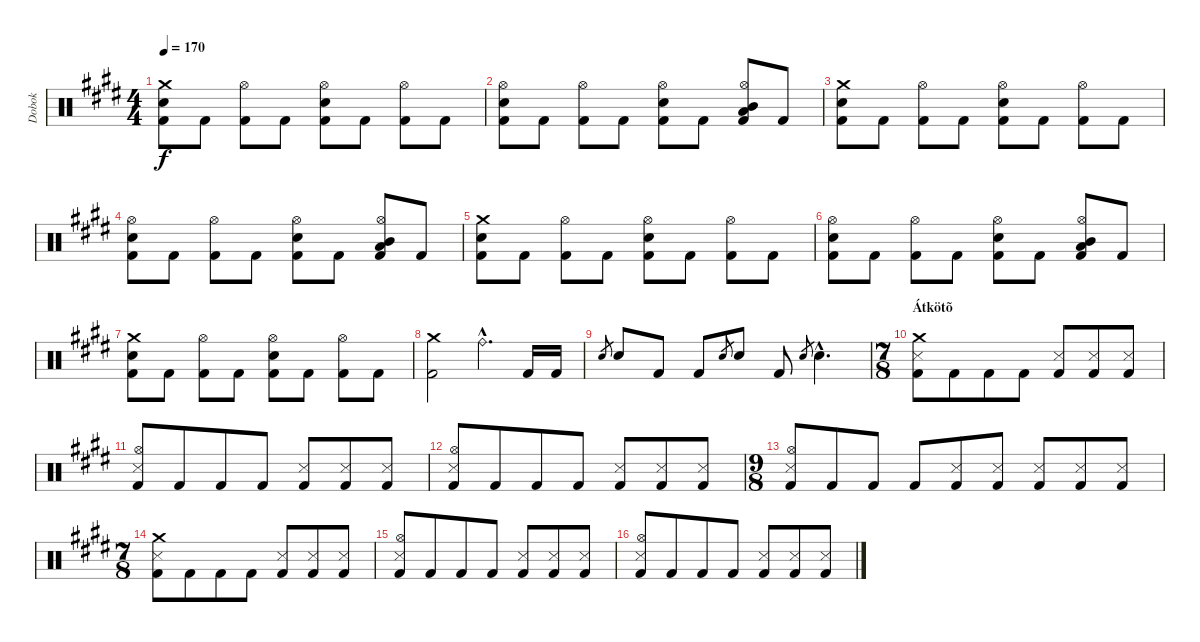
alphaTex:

\track ("Dobok" "Dobok") {instrument percussion}
\staff {score}
\articulation defaults
\ts (4 4)
\tempo 170
\clef neutral
\ks c#minor
("Crash medium (hit)" "Snare (hit) 2" "Kick (hit) 2").8{dy f} "Kick (hit) 2".8 ("Hi-Hat (open)" "Kick (hit) 2").8 "Kick (hit) 2".8 ("Hi-Hat (open)" "Snare (hit) 2" "Kick (hit) 2").8 "Kick (hit) 2".8 ("Hi-Hat (open)" "Kick (hit) 2").8 "Kick (hit) 2".8 |
("Hi-Hat (open)" "Snare (hit) 2" "Kick (hit) 2").8 "Kick (hit) 2".8 ("Hi-Hat (open)" "Kick (hit) 2").8 "Kick (hit) 2".8 ("Hi-Hat (open)" "Snare (hit) 2" "Kick (hit) 2").8 "Kick (hit) 2".8 ("Hi-Hat (open)" "Low Tom (hit)" "Mid Tom (hit)" "Kick (hit) 2").8 "Kick (hit) 2".8 |
("Crash medium (hit)" "Snare (hit) 2" "Kick (hit) 2").8 "Kick (hit) 2".8 ("Hi-Hat (open)" "Kick (hit) 2").8 "Kick (hit) 2".8 ("Hi-Hat (open)" "Snare (hit) 2" "Kick (hit) 2").8 "Kick (hit) 2".8 ("Hi-Hat (open)" "Kick (hit) 2").8 "Kick (hit) 2".8 |
("Hi-Hat (open)" "Snare (hit) 2" "Kick (hit) 2").8 "Kick (hit) 2".8 ("Hi-Hat (open)" "Kick (hit) 2").8 "Kick (hit) 2".8 ("Hi-Hat (open)" "Snare (hit) 2" "Kick (hit) 2").8 "Kick (hit) 2".8 ("Hi-Hat (open)" "Low Tom (hit)" "Mid Tom (hit)" "Kick (hit) 2").8 "Kick (hit) 2".8 |
("Crash medium (hit)" "Snare (hit) 2" "Kick (hit) 2").8 "Kick (hit) 2".8 ("Hi-Hat (open)" "Kick (hit) 2").8 "Kick (hit) 2".8 ("Hi-Hat (open)" "Snare (hit) 2" "Kick (hit) 2").8 "Kick (hit) 2".8 ("Hi-Hat (open)" "Kick (hit) 2").8 "Kick (hit) 2".8 |
("Hi-Hat (open)" "Snare (hit) 2" "Kick (hit) 2").8 "Kick (hit) 2".8 ("Hi-Hat (open)" "Kick (hit) 2").8 "Kick (hit) 2".8 ("Hi-Hat (open)" "Snare (hit) 2" "Kick (hit) 2").8 "Kick (hit) 2".8 ("Hi-Hat (open)" "Low Tom (hit)" "Mid Tom (hit)" "Kick (hit) 2").8 "Kick (hit) 2".8 |
("Crash medium (hit)" "Snare (hit) 2" "Kick (hit) 2").8 "Kick (hit) 2".8 ("Hi-Hat (open)" "Kick (hit) 2").8 "Kick (hit) 2".8 ("Hi-Hat (open)" "Snare (hit) 2" "Kick (hit) 2").8 "Kick (hit) 2".8 ("Hi-Hat (open)" "Kick (hit) 2").8 "Kick (hit) 2".8 |
("Crash medium (hit)" "Kick (hit) 2").2 "Ride (bell)"{hac}.4{d} "Kick (hit) 2".16 "Kick (hit) 2".16 |
"Snare (hit) 2".8{gr} "Snare (hit) 2".8 "Kick (hit) 2".8 "Kick (hit) 2".8 "Snare (hit) 2".8{gr} "Snare (hit) 2".8 "Kick (hit) 2".8 "Snare (hit) 2".8{gr} "Snare (hit) 2"{hac}.4{d} |
\ts (7 8)
\section ("" "Átkötõ")
("Crash medium (hit)" "Snare (side stick) 3" "Kick (hit) 2").8 "Kick (hit) 2".8 "Kick (hit) 2".8 "Kick (hit) 2".8 ("Snare (side stick) 3" "Kick (hit) 2").8 ("Snare (side stick) 3" "Kick (hit) 2").8 ("Snare (side stick) 3" "Kick (hit) 2").8 |
("Hi-Hat (open)" "Snare (side stick) 3" "Kick (hit) 2").8 "Kick (hit) 2".8 "Kick (hit) 2".8 "Kick (hit) 2".8 ("Snare (side stick) 3" "Kick (hit) 2").8 ("Snare (side stick) 3" "Kick (hit) 2").8 ("Snare (side stick) 3" "Kick (hit) 2").8 |
("Hi-Hat (open)" "Snare (side stick) 3" "Kick (hit) 2").8 "Kick (hit) 2".8 "Kick (hit) 2".8 "Kick (hit) 2".8 ("Snare (side stick) 3" "Kick (hit) 2").8 ("Snare (side stick) 3" "Kick (hit) 2").8 ("Snare (side stick) 3" "Kick (hit) 2").8 |
\ts (9 8)
("Hi-Hat (open)" "Snare (side stick) 3" "Kick (hit) 2").8 "Kick (hit) 2".8 "Kick (hit) 2".8 "Kick (hit) 2".8 ("Snare (side stick) 3" "Kick (hit) 2").8 ("Snare (side stick) 3" "Kick (hit) 2").8 ("Snare (side stick) 3" "Kick (hit) 2").8 ("Snare (side stick) 3" "Kick (hit) 2").8 ("Snare (side stick) 3" "Kick (hit) 2").8 |
\ts (7 8)
("Crash medium (hit)" "Snare (side stick) 3" "Kick (hit) 2").8 "Kick (hit) 2".8 "Kick (hit) 2".8 "Kick (hit) 2".8 ("Snare (side stick) 3" "Kick (hit) 2").8 ("Snare (side stick) 3" "Kick (hit) 2").8 ("Snare (side stick) 3" "Kick (hit) 2").8 |
("Hi-Hat (open)" "Snare (side stick) 3" "Kick (hit) 2").8 "Kick (hit) 2".8 "Kick (hit) 2".8 "Kick (hit) 2".8 ("Snare (side stick) 3" "Kick (hit) 2").8 ("Snare (side stick) 3" "Kick (hit) 2").8 ("Snare (side stick) 3" "Kick (hit) 2").8 |
("Hi-Hat (open)" "Snare (side stick) 3" "Kick (hit) 2").8 "Kick (hit) 2".8 "Kick (hit) 2".8 "Kick (hit) 2".8 ("Snare (side stick) 3" "Kick (hit) 2").8 ("Snare (side stick) 3" "Kick (hit) 2").8 ("Snare (side stick) 3" "Kick (hit) 2").8
